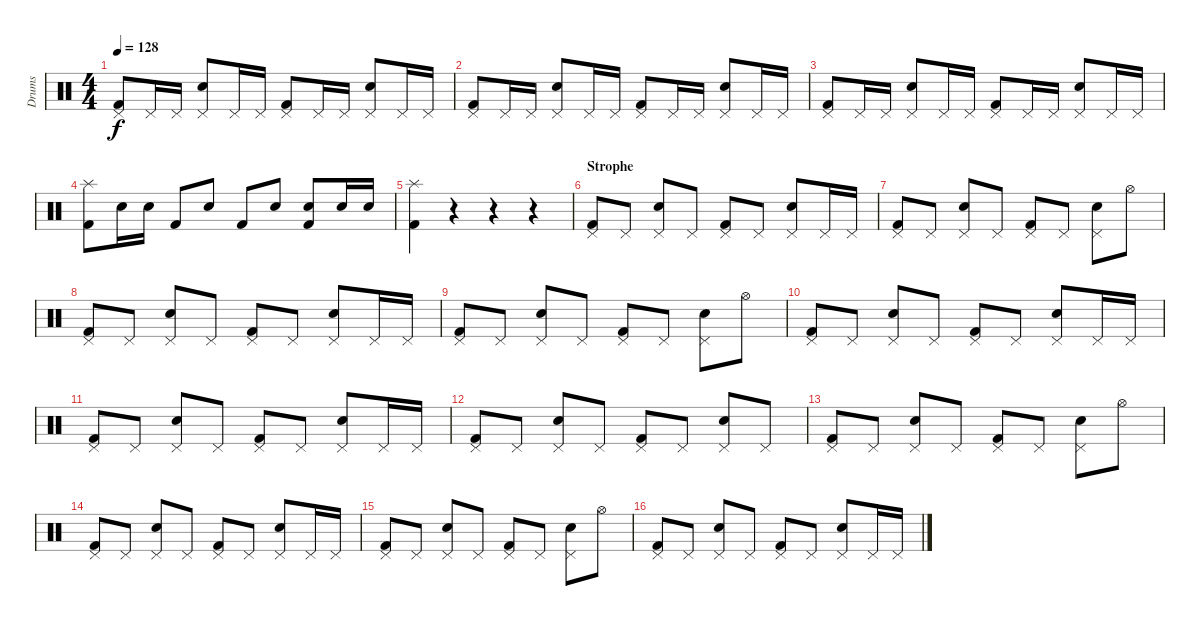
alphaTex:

\track ("Drums" "Drums") {instrument percussion}
\staff {score}
\articulation defaults
\ts (4 4)
\tempo 128
\clef neutral
\ks c
("Pedal Hi-Hat (hit)" "Kick (hit) 2").8{dy f} "Pedal Hi-Hat (hit)".16 "Pedal Hi-Hat (hit)".16 ("Pedal Hi-Hat (hit)" "Snare (hit) 2").8 "Pedal Hi-Hat (hit)".16 "Pedal Hi-Hat (hit)".16 ("Pedal Hi-Hat (hit)" "Kick (hit) 2").8 "Pedal Hi-Hat (hit)".16 "Pedal Hi-Hat (hit)".16 ("Pedal Hi-Hat (hit)" "Snare (hit) 2").8 "Pedal Hi-Hat (hit)".16 "Pedal Hi-Hat (hit)".16 |
("Pedal Hi-Hat (hit)" "Kick (hit) 2").8 "Pedal Hi-Hat (hit)".16 "Pedal Hi-Hat (hit)".16 ("Pedal Hi-Hat (hit)" "Snare (hit) 2").8 "Pedal Hi-Hat (hit)".16 "Pedal Hi-Hat (hit)".16 ("Pedal Hi-Hat (hit)" "Kick (hit) 2").8 "Pedal Hi-Hat (hit)".16 "Pedal Hi-Hat (hit)".16 ("Pedal Hi-Hat (hit)" "Snare (hit) 2").8 "Pedal Hi-Hat (hit)".16 "Pedal Hi-Hat (hit)".16 |
("Pedal Hi-Hat (hit)" "Kick (hit) 2").8 "Pedal Hi-Hat (hit)".16 "Pedal Hi-Hat (hit)".16 ("Pedal Hi-Hat (hit)" "Snare (hit) 2").8 "Pedal Hi-Hat (hit)".16 "Pedal Hi-Hat (hit)".16 ("Pedal Hi-Hat (hit)" "Kick (hit) 2").8 "Pedal Hi-Hat (hit)".16 "Pedal Hi-Hat (hit)".16 ("Pedal Hi-Hat (hit)" "Snare (hit) 2").8 "Pedal Hi-Hat (hit)".16 "Pedal Hi-Hat (hit)".16 |
("Splash (hit)" "Kick (hit) 2").8 "Snare (hit) 2".16 "Snare (hit) 2".16 "Kick (hit) 2".8 "Snare (hit) 2".8 "Kick (hit) 2".8 "Snare (hit) 2".8 ("Snare (hit) 2" "Kick (hit) 2").8 "Snare (hit) 2".16 "Snare (hit) 2".16 |
("Splash (hit)" "Kick (hit) 2").4 r.4 r.4 r.4 |
\section ("" "Strophe")
("Pedal Hi-Hat (hit)" "Kick (hit) 2").8 "Pedal Hi-Hat (hit)".8 ("Pedal Hi-Hat (hit)" "Snare (hit) 2").8 "Pedal Hi-Hat (hit)".8 ("Pedal Hi-Hat (hit)" "Kick (hit) 2").8 "Pedal Hi-Hat (hit)".8 ("Pedal Hi-Hat (hit)" "Snare (hit) 2").8 "Pedal Hi-Hat (hit)".16 "Pedal Hi-Hat (hit)".16 |
("Pedal Hi-Hat (hit)" "Kick (hit) 2").8 "Pedal Hi-Hat (hit)".8 ("Pedal Hi-Hat (hit)" "Snare (hit) 2").8 "Pedal Hi-Hat (hit)".8 ("Pedal Hi-Hat (hit)" "Kick (hit) 2").8 "Pedal Hi-Hat (hit)".8 ("Pedal Hi-Hat (hit)" "Snare (hit) 2").8 "Hi-Hat (open)".8 |
("Pedal Hi-Hat (hit)" "Kick (hit) 2").8 "Pedal Hi-Hat (hit)".8 ("Pedal Hi-Hat (hit)" "Snare (hit) 2").8 "Pedal Hi-Hat (hit)".8 ("Pedal Hi-Hat (hit)" "Kick (hit) 2").8 "Pedal Hi-Hat (hit)".8 ("Pedal Hi-Hat (hit)" "Snare (hit) 2").8 "Pedal Hi-Hat (hit)".16 "Pedal Hi-Hat (hit)".16 |
("Pedal Hi-Hat (hit)" "Kick (hit) 2").8 "Pedal Hi-Hat (hit)".8 ("Pedal Hi-Hat (hit)" "Snare (hit) 2").8 "Pedal Hi-Hat (hit)".8 ("Pedal Hi-Hat (hit)" "Kick (hit) 2").8 "Pedal Hi-Hat (hit)".8 ("Pedal Hi-Hat (hit)" "Snare (hit) 2").8 "Hi-Hat (open)".8 |
("Pedal Hi-Hat (hit)" "Kick (hit) 2").8 "Pedal Hi-Hat (hit)".8 ("Pedal Hi-Hat (hit)" "Snare (hit) 2").8 "Pedal Hi-Hat (hit)".8 ("Pedal Hi-Hat (hit)" "Kick (hit) 2").8 "Pedal Hi-Hat (hit)".8 ("Pedal Hi-Hat (hit)" "Snare (hit) 2").8 "Pedal Hi-Hat (hit)".16 "Pedal Hi-Hat (hit)".16 |
("Pedal Hi-Hat (hit)" "Kick (hit) 2").8 "Pedal Hi-Hat (hit)".8 ("Pedal Hi-Hat (hit)" "Snare (hit) 2").8 "Pedal Hi-Hat (hit)".8 ("Pedal Hi-Hat (hit)" "Kick (hit) 2").8 "Pedal Hi-Hat (hit)".8 ("Pedal Hi-Hat (hit)" "Snare (hit) 2").8 "Pedal Hi-Hat (hit)".16 "Pedal Hi-Hat (hit)".16 |
("Pedal Hi-Hat (hit)" "Kick (hit) 2").8 "Pedal Hi-Hat (hit)".8 ("Pedal Hi-Hat (hit)" "Snare (hit) 2").8 "Pedal Hi-Hat (hit)".8 ("Pedal Hi-Hat (hit)" "Kick (hit) 2").8 "Pedal Hi-Hat (hit)".8 ("Pedal Hi-Hat (hit)" "Snare (hit) 2").8 "Pedal Hi-Hat (hit)".8 |
("Pedal Hi-Hat (hit)" "Kick (hit) 2").8 "Pedal Hi-Hat (hit)".8 ("Pedal Hi-Hat (hit)" "Snare (hit) 2").8 "Pedal Hi-Hat (hit)".8 ("Pedal Hi-Hat (hit)" "Kick (hit) 2").8 "Pedal Hi-Hat (hit)".8 ("Pedal Hi-Hat (hit)" "Snare (hit) 2").8 "Hi-Hat (open)".8 |
("Pedal Hi-Hat (hit)" "Kick (hit) 2").8 "Pedal Hi-Hat (hit)".8 ("Pedal Hi-Hat (hit)" "Snare (hit) 2").8 "Pedal Hi-Hat (hit)".8 ("Pedal Hi-Hat (hit)" "Kick (hit) 2").8 "Pedal Hi-Hat (hit)".8 ("Pedal Hi-Hat (hit)" "Snare (hit) 2").8 "Pedal Hi-Hat (hit)".16 "Pedal Hi-Hat (hit)".16 |
("Pedal Hi-Hat (hit)" "Kick (hit) 2").8 "Pedal Hi-Hat (hit)".8 ("Pedal Hi-Hat (hit)" "Snare (hit) 2").8 "Pedal Hi-Hat (hit)".8 ("Pedal Hi-Hat (hit)" "Kick (hit) 2").8 "Pedal Hi-Hat (hit)".8 ("Pedal Hi-Hat (hit)" "Snare (hit) 2").8 "Hi-Hat (open)".8 |
("Pedal Hi-Hat (hit)" "Kick (hit) 2").8 "Pedal Hi-Hat (hit)".8 ("Pedal Hi-Hat (hit)" "Snare (hit) 2").8 "Pedal Hi-Hat (hit)".8 ("Pedal Hi-Hat (hit)" "Kick (hit) 2").8 "Pedal Hi-Hat (hit)".8 ("Pedal Hi-Hat (hit)" "Snare (hit) 2").8 "Pedal Hi-Hat (hit)".16 "Pedal Hi-Hat (hit)".16
